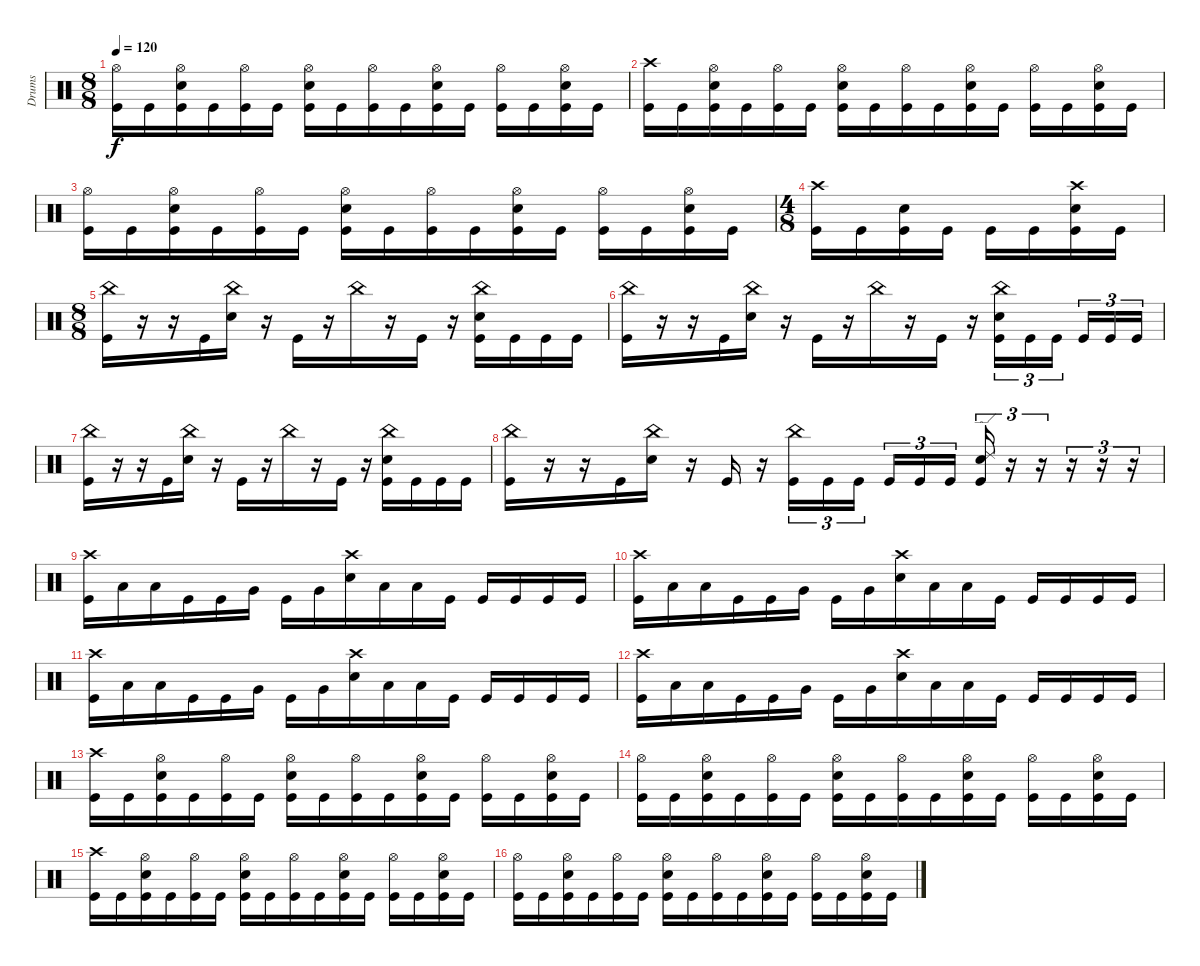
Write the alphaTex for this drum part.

\track ("Drums" "Drums") {instrument percussion}
\staff {score}
\articulation defaults
\ts (8 8)
\tempo 120
\clef neutral
\ks c
("Hi-Hat (open)" "Kick (hit)").16{dy f} "Kick (hit)".16 ("Hi-Hat (open)" "Electric Snare (hit)" "Kick (hit)").16 "Kick (hit)".16 ("Hi-Hat (open)" "Kick (hit)").16 "Kick (hit)".16 ("Hi-Hat (open)" "Electric Snare (hit)" "Kick (hit)").16 "Kick (hit)".16 ("Hi-Hat (open)" "Kick (hit)").16 "Kick (hit)".16 ("Hi-Hat (open)" "Electric Snare (hit)" "Kick (hit)").16 "Kick (hit)".16 ("Hi-Hat (open)" "Kick (hit)").16 "Kick (hit)".16 ("Hi-Hat (open)" "Electric Snare (hit)" "Kick (hit)").16 "Kick (hit)".16 |
("Crash high (hit)" "Kick (hit)").16 "Kick (hit)".16 ("Hi-Hat (open)" "Electric Snare (hit)" "Kick (hit)").16 "Kick (hit)".16 ("Hi-Hat (open)" "Kick (hit)").16 "Kick (hit)".16 ("Hi-Hat (open)" "Electric Snare (hit)" "Kick (hit)").16 "Kick (hit)".16 ("Hi-Hat (open)" "Kick (hit)").16 "Kick (hit)".16 ("Hi-Hat (open)" "Electric Snare (hit)" "Kick (hit)").16 "Kick (hit)".16 ("Hi-Hat (open)" "Kick (hit)").16 "Kick (hit)".16 ("Hi-Hat (open)" "Electric Snare (hit)" "Kick (hit)").16 "Kick (hit)".16 |
("Hi-Hat (open)" "Kick (hit)").16 "Kick (hit)".16 ("Hi-Hat (open)" "Electric Snare (hit)" "Kick (hit)").16 "Kick (hit)".16 ("Hi-Hat (open)" "Kick (hit)").16 "Kick (hit)".16 ("Hi-Hat (open)" "Electric Snare (hit)" "Kick (hit)").16 "Kick (hit)".16 ("Hi-Hat (open)" "Kick (hit)").16 "Kick (hit)".16 ("Hi-Hat (open)" "Electric Snare (hit)" "Kick (hit)").16 "Kick (hit)".16 ("Hi-Hat (open)" "Kick (hit)").16 "Kick (hit)".16 ("Hi-Hat (open)" "Electric Snare (hit)" "Kick (hit)").16 "Kick (hit)".16 |
\ts (4 8)
("Crash high (hit)" "Kick (hit)").16 "Kick (hit)".16 ("Electric Snare (hit)" "Kick (hit)").16 "Kick (hit)".16 "Kick (hit)".16 "Kick (hit)".16 ("Crash high (hit)" "Electric Snare (hit)" "Kick (hit)").16 "Kick (hit)".16 |
\ts (8 8)
("China (hit)" "Kick (hit)").16 r.16 r.16 "Kick (hit)".16 ("China (hit)" "Electric Snare (hit)").16 r.16 "Kick (hit)".16 r.16 "China (hit)".16 r.16 "Kick (hit)".16 r.16 ("China (hit)" "Electric Snare (hit)" "Kick (hit)").16 "Kick (hit)".16 "Kick (hit)".16 "Kick (hit)".16 |
("China (hit)" "Kick (hit)").16 r.16 r.16 "Kick (hit)".16 ("China (hit)" "Electric Snare (hit)").16 r.16 "Kick (hit)".16 r.16 "China (hit)".16 r.16 "Kick (hit)".16 r.16 ("China (hit)" "Electric Snare (hit)" "Kick (hit)").16{tu (3 2)} "Kick (hit)".16{tu (3 2)} "Kick (hit)".16{tu (3 2)} "Kick (hit)".16{tu (3 2)} "Kick (hit)".16{tu (3 2)} "Kick (hit)".16{tu (3 2)} |
("China (hit)" "Kick (hit)").16 r.16 r.16 "Kick (hit)".16 ("China (hit)" "Electric Snare (hit)").16 r.16 "Kick (hit)".16 r.16 "China (hit)".16 r.16 "Kick (hit)".16 r.16 ("China (hit)" "Electric Snare (hit)" "Kick (hit)").16 "Kick (hit)".16 "Kick (hit)".16 "Kick (hit)".16 |
("China (hit)" "Kick (hit)").16 r.16 r.16 "Kick (hit)".16 ("China (hit)" "Electric Snare (hit)").16 r.16 "Kick (hit)".16 r.16 ("China (hit)" "Kick (hit)").16{tu (3 2)} "Kick (hit)".16{tu (3 2)} "Kick (hit)".16{tu (3 2)} "Kick (hit)".16{tu (3 2)} "Kick (hit)".16{tu (3 2)} "Kick (hit)".16{tu (3 2)} ("Ride (edge) 2" "Electric Snare (hit)" "Kick (hit)").16{tu (3 2)} r.16{tu (3 2)} r.16{tu (3 2)} r.16{tu (3 2)} r.16{tu (3 2)} r.16{tu (3 2)} |
("Crash high (hit)" "Kick (hit)").16 "Low Tom (hit)".16 "Low Tom (hit)".16 "Kick (hit)".16 "Kick (hit)".16 "Very Low Tom (hit)".16 "Kick (hit)".16 "Very Low Tom (hit)".16 ("Crash high (hit)" "Electric Snare (hit)").16 "Low Tom (hit)".16 "Low Tom (hit)".16 "Kick (hit)".16 "Kick (hit)".16 "Kick (hit)".16 "Kick (hit)".16 "Kick (hit)".16 |
("Crash high (hit)" "Kick (hit)").16 "Low Tom (hit)".16 "Low Tom (hit)".16 "Kick (hit)".16 "Kick (hit)".16 "Very Low Tom (hit)".16 "Kick (hit)".16 "Very Low Tom (hit)".16 ("Crash high (hit)" "Electric Snare (hit)").16 "Low Tom (hit)".16 "Low Tom (hit)".16 "Kick (hit)".16 "Kick (hit)".16 "Kick (hit)".16 "Kick (hit)".16 "Kick (hit)".16 |
("Crash high (hit)" "Kick (hit)").16 "Low Tom (hit)".16 "Low Tom (hit)".16 "Kick (hit)".16 "Kick (hit)".16 "Very Low Tom (hit)".16 "Kick (hit)".16 "Very Low Tom (hit)".16 ("Crash high (hit)" "Electric Snare (hit)").16 "Low Tom (hit)".16 "Low Tom (hit)".16 "Kick (hit)".16 "Kick (hit)".16 "Kick (hit)".16 "Kick (hit)".16 "Kick (hit)".16 |
("Crash high (hit)" "Kick (hit)").16 "Low Tom (hit)".16 "Low Tom (hit)".16 "Kick (hit)".16 "Kick (hit)".16 "Very Low Tom (hit)".16 "Kick (hit)".16 "Very Low Tom (hit)".16 ("Crash high (hit)" "Electric Snare (hit)").16 "Low Tom (hit)".16 "Low Tom (hit)".16 "Kick (hit)".16 "Kick (hit)".16 "Kick (hit)".16 "Kick (hit)".16 "Kick (hit)".16 |
("Crash high (hit)" "Kick (hit)").16 "Kick (hit)".16 ("Hi-Hat (open)" "Electric Snare (hit)" "Kick (hit)").16 "Kick (hit)".16 ("Hi-Hat (open)" "Kick (hit)").16 "Kick (hit)".16 ("Hi-Hat (open)" "Electric Snare (hit)" "Kick (hit)").16 "Kick (hit)".16 ("Hi-Hat (open)" "Kick (hit)").16 "Kick (hit)".16 ("Hi-Hat (open)" "Electric Snare (hit)" "Kick (hit)").16 "Kick (hit)".16 ("Hi-Hat (open)" "Kick (hit)").16 "Kick (hit)".16 ("Hi-Hat (open)" "Electric Snare (hit)" "Kick (hit)").16 "Kick (hit)".16 |
("Hi-Hat (open)" "Kick (hit)").16 "Kick (hit)".16 ("Hi-Hat (open)" "Electric Snare (hit)" "Kick (hit)").16 "Kick (hit)".16 ("Hi-Hat (open)" "Kick (hit)").16 "Kick (hit)".16 ("Hi-Hat (open)" "Electric Snare (hit)" "Kick (hit)").16 "Kick (hit)".16 ("Hi-Hat (open)" "Kick (hit)").16 "Kick (hit)".16 ("Hi-Hat (open)" "Electric Snare (hit)" "Kick (hit)").16 "Kick (hit)".16 ("Hi-Hat (open)" "Kick (hit)").16 "Kick (hit)".16 ("Hi-Hat (open)" "Electric Snare (hit)" "Kick (hit)").16 "Kick (hit)".16 |
("Crash high (hit)" "Kick (hit)").16 "Kick (hit)".16 ("Hi-Hat (open)" "Electric Snare (hit)" "Kick (hit)").16 "Kick (hit)".16 ("Hi-Hat (open)" "Kick (hit)").16 "Kick (hit)".16 ("Hi-Hat (open)" "Electric Snare (hit)" "Kick (hit)").16 "Kick (hit)".16 ("Hi-Hat (open)" "Kick (hit)").16 "Kick (hit)".16 ("Hi-Hat (open)" "Electric Snare (hit)" "Kick (hit)").16 "Kick (hit)".16 ("Hi-Hat (open)" "Kick (hit)").16 "Kick (hit)".16 ("Hi-Hat (open)" "Electric Snare (hit)" "Kick (hit)").16 "Kick (hit)".16 |
("Hi-Hat (open)" "Kick (hit)").16 "Kick (hit)".16 ("Hi-Hat (open)" "Electric Snare (hit)" "Kick (hit)").16 "Kick (hit)".16 ("Hi-Hat (open)" "Kick (hit)").16 "Kick (hit)".16 ("Hi-Hat (open)" "Electric Snare (hit)" "Kick (hit)").16 "Kick (hit)".16 ("Hi-Hat (open)" "Kick (hit)").16 "Kick (hit)".16 ("Hi-Hat (open)" "Electric Snare (hit)" "Kick (hit)").16 "Kick (hit)".16 ("Hi-Hat (open)" "Kick (hit)").16 "Kick (hit)".16 ("Hi-Hat (open)" "Electric Snare (hit)" "Kick (hit)").16 "Kick (hit)".16
